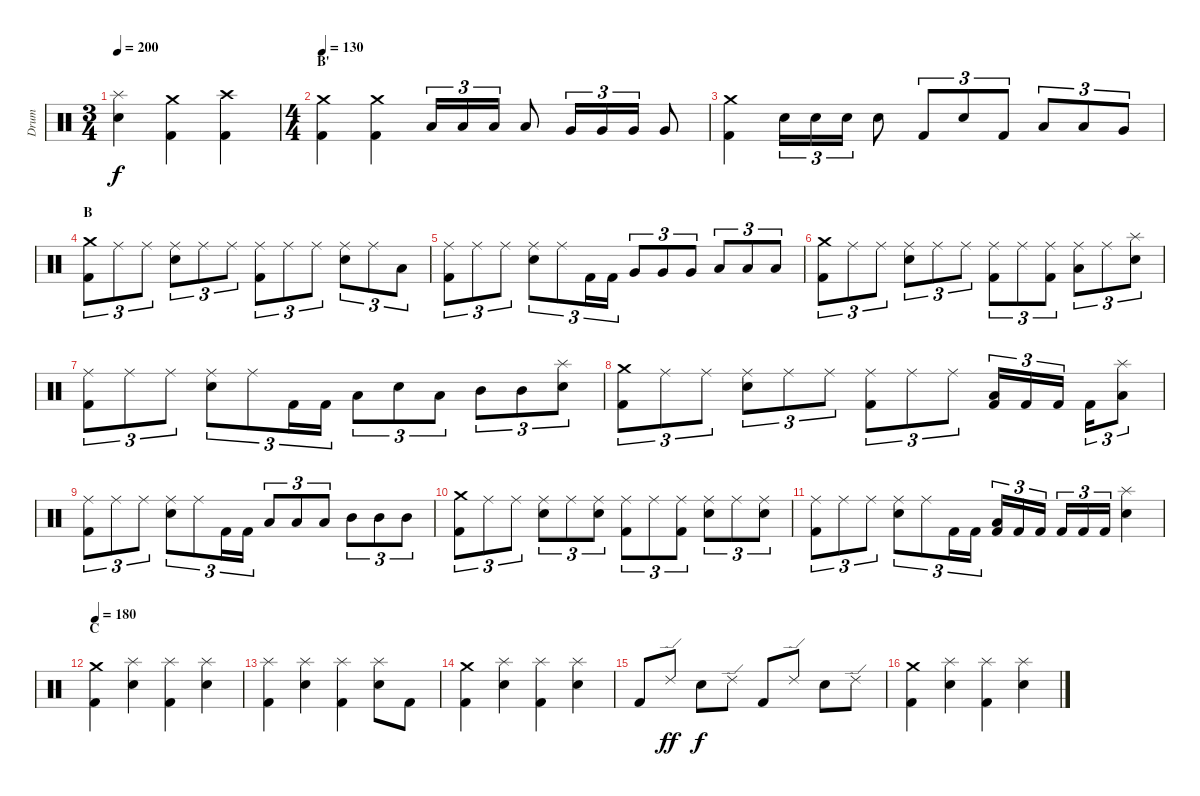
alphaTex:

\track ("Drum" "Drum") {instrument percussion}
\staff {score}
\articulation defaults
\ts (3 4)
\tempo 200
\clef neutral
\ks c
("Splash (hit)" "Electric Snare (hit)").4{dy f} ("Crash medium (hit)" "Kick (hit) 2").4 ("Crash high (hit)" "Kick (hit) 2").4 |
\ts (4 4)
\section ("" "B'")
\tempo 130
("Crash medium (hit)" "Kick (hit) 2").4 ("Crash medium (hit)" "Kick (hit) 2").4 "Low Tom (hit)".16{tu (3 2)} "Low Tom (hit)".16{tu (3 2)} "Low Tom (hit)".16{tu (3 2)} "Low Tom (hit)".8 "Very Low Tom (hit)".16{tu (3 2)} "Very Low Tom (hit)".16{tu (3 2)} "Very Low Tom (hit)".16{tu (3 2)} "Very Low Tom (hit)".8 |
("Crash medium (hit)" "Kick (hit) 2").4 "Electric Snare (hit)".16{tu (3 2)} "Electric Snare (hit)".16{tu (3 2)} "Electric Snare (hit)".16{tu (3 2)} "Electric Snare (hit)".8 "Kick (hit) 2".8{tu (3 2)} "Electric Snare (hit)".8{tu (3 2)} "Kick (hit) 2".8{tu (3 2)} "Low Tom (hit)".8{tu (3 2)} "Low Tom (hit)".8{tu (3 2)} "Very Low Tom (hit)".8{tu (3 2)} |
\section ("" "B")
("Crash medium (hit)" "Kick (hit) 2").8{tu (3 2)} "Ride (middle)".8{tu (3 2)} "Ride (middle)".8{tu (3 2)} ("Ride (middle)" "Electric Snare (hit)").8{tu (3 2)} "Ride (middle)".8{tu (3 2)} "Ride (middle)".8{tu (3 2)} ("Ride (middle)" "Kick (hit) 2").8{tu (3 2)} "Ride (middle)".8{tu (3 2)} "Ride (middle)".8{tu (3 2)} ("Ride (middle)" "Electric Snare (hit)").8{tu (3 2)} "Ride (middle)".8{tu (3 2)} "Low Tom (hit)".8{tu (3 2)} |
("Ride (middle)" "Kick (hit) 2").8{tu (3 2)} "Ride (middle)".8{tu (3 2)} "Ride (middle)".8{tu (3 2)} ("Ride (middle)" "Electric Snare (hit)").8{tu (3 2)} "Ride (middle)".8{tu (3 2)} "Kick (hit) 2".16{tu (3 2)} "Kick (hit) 2".16{tu (3 2)} "Very Low Tom (hit)".8{tu (3 2)} "Very Low Tom (hit)".8{tu (3 2)} "Very Low Tom (hit)".8{tu (3 2)} "Low Tom (hit)".8{tu (3 2)} "Low Tom (hit)".8{tu (3 2)} "Low Tom (hit)".8{tu (3 2)} |
("Crash medium (hit)" "Kick (hit) 2").8{tu (3 2)} "Ride (middle)".8{tu (3 2)} "Ride (middle)".8{tu (3 2)} ("Ride (middle)" "Electric Snare (hit)").8{tu (3 2)} "Ride (middle)".8{tu (3 2)} "Ride (middle)".8{tu (3 2)} ("Ride (middle)" "Kick (hit) 2").8{tu (3 2)} "Ride (middle)".8{tu (3 2)} ("Ride (middle)" "Kick (hit) 2").8{tu (3 2)} ("Ride (middle)" "Low Tom (hit)").8{tu (3 2)} "Ride (middle)".8{tu (3 2)} ("Splash (hit)" "Electric Snare (hit)").8{tu (3 2)} |
("Ride (middle)" "Kick (hit) 2").8{tu (3 2)} "Ride (middle)".8{tu (3 2)} "Ride (middle)".8{tu (3 2)} ("Ride (middle)" "Electric Snare (hit)").8{tu (3 2)} "Ride (middle)".8{tu (3 2)} "Kick (hit) 2".16{tu (3 2)} "Kick (hit) 2".16{tu (3 2)} "Low Tom (hit)".8{tu (3 2)} "Electric Snare (hit)".8{tu (3 2)} "Low Tom (hit)".8{tu (3 2)} "Mid Tom (hit)".8{tu (3 2)} "Mid Tom (hit)".8{tu (3 2)} ("Splash (hit)" "Electric Snare (hit)").8{tu (3 2)} |
("Crash medium (hit)" "Kick (hit) 2").8{tu (3 2)} "Ride (middle)".8{tu (3 2)} "Ride (middle)".8{tu (3 2)} ("Ride (middle)" "Electric Snare (hit)").8{tu (3 2)} "Ride (middle)".8{tu (3 2)} "Ride (middle)".8{tu (3 2)} ("Ride (middle)" "Kick (hit) 2").8{tu (3 2)} "Ride (middle)".8{tu (3 2)} "Ride (middle)".8{tu (3 2)} ("Low Tom (hit)" "Kick (hit) 2").16{tu (3 2)} "Kick (hit) 2".16{tu (3 2)} "Kick (hit) 2".16{tu (3 2)} "Kick (hit) 2".16{tu (3 2)} ("Splash (hit)" "Low Tom (hit)").8{tu (3 2)} |
("Ride (middle)" "Kick (hit) 2").8{tu (3 2)} "Ride (middle)".8{tu (3 2)} "Ride (middle)".8{tu (3 2)} ("Ride (middle)" "Electric Snare (hit)").8{tu (3 2)} "Ride (middle)".8{tu (3 2)} "Kick (hit) 2".16{tu (3 2)} "Kick (hit) 2".16{tu (3 2)} "Low Tom (hit)".8{tu (3 2)} "Low Tom (hit)".8{tu (3 2)} "Low Tom (hit)".8{tu (3 2)} "Mid Tom (hit)".8{tu (3 2)} "Mid Tom (hit)".8{tu (3 2)} "Mid Tom (hit)".8{tu (3 2)} |
("Crash medium (hit)" "Kick (hit) 2").8{tu (3 2)} "Ride (middle)".8{tu (3 2)} "Ride (middle)".8{tu (3 2)} ("Ride (middle)" "Electric Snare (hit)").8{tu (3 2)} "Ride (middle)".8{tu (3 2)} ("Ride (middle)" "Electric Snare (hit)").8{tu (3 2)} ("Ride (middle)" "Kick (hit) 2").8{tu (3 2)} "Ride (middle)".8{tu (3 2)} ("Ride (middle)" "Kick (hit) 2").8{tu (3 2)} ("Ride (middle)" "Electric Snare (hit)").8{tu (3 2)} "Ride (middle)".8{tu (3 2)} ("Ride (middle)" "Electric Snare (hit)").8{tu (3 2)} |
("Ride (middle)" "Kick (hit) 2").8{tu (3 2)} "Ride (middle)".8{tu (3 2)} "Ride (middle)".8{tu (3 2)} ("Ride (middle)" "Electric Snare (hit)").8{tu (3 2)} "Ride (middle)".8{tu (3 2)} "Kick (hit) 2".16{tu (3 2)} "Kick (hit) 2".16{tu (3 2)} ("Low Tom (hit)" "Kick (hit) 2").16{tu (3 2)} "Kick (hit) 2".16{tu (3 2)} "Kick (hit) 2".16{tu (3 2)} "Kick (hit) 2".16{tu (3 2)} "Kick (hit) 2".16{tu (3 2)} "Kick (hit) 2".16{tu (3 2)} ("Splash (hit)" "Electric Snare (hit)").4 |
\section ("" "C")
\tempo 180
("Crash medium (hit)" "Kick (hit) 2").4 ("Splash (hit)" "Electric Snare (hit)").4 ("Splash (hit)" "Kick (hit) 2").4 ("Splash (hit)" "Electric Snare (hit)").4 |
("Splash (hit)" "Kick (hit) 2").4 ("Splash (hit)" "Electric Snare (hit)").4 ("Splash (hit)" "Kick (hit) 2").4 ("Splash (hit)" "Electric Snare (hit)").8 "Kick (hit) 2".8 |
("Crash medium (hit)" "Kick (hit) 2").4 ("Splash (hit)" "Electric Snare (hit)").4 ("Splash (hit)" "Kick (hit) 2").4 ("Splash (hit)" "Electric Snare (hit)").4 |
"Kick (hit) 2".8 "Ride (edge) 2".8{dy ff} "Electric Snare (hit)".8{dy f} "Ride (edge) 2".8 "Kick (hit) 2".8 "Ride (edge) 2".8 "Electric Snare (hit)".8 "Ride (edge) 2".8 |
("Crash medium (hit)" "Kick (hit) 2").4 ("Splash (hit)" "Electric Snare (hit)").4 ("Splash (hit)" "Kick (hit) 2").4 ("Splash (hit)" "Electric Snare (hit)").4
